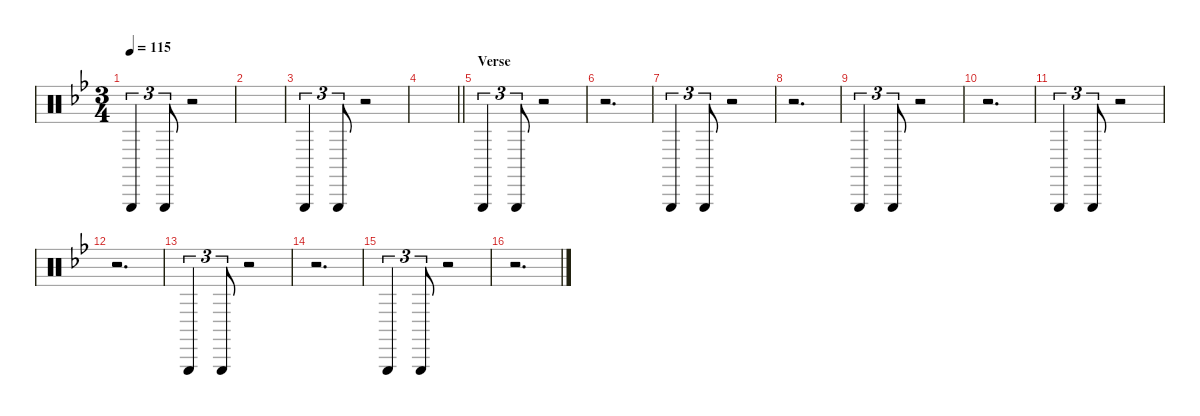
\defaultSystemsLayout 4
\hideDynamics
\bracketExtendMode nobrackets
\singleTrackTrackNamePolicy hidden
\multiTrackTrackNamePolicy hidden
\firstSystemTrackNameMode fullname
\firstSystemTrackNameOrientation horizontal
\otherSystemsTrackNameOrientation horizontal
\track ("Percussion" "drm.") {defaultSystemsLayout 16 instrument percussion}
\staff {score}
\articulation defaults
\ts (3 4)
\tempo 115
\clef neutral
\ks gminor "Triangle (hit)"{acc forcenatural}.4{tu (3 2) dy mf beam Up} "Triangle (hit)"{acc forcenatural}.8{tu (3 2) dy p beam Up}
r.2{beam Up} |
|
"Triangle (hit)"{acc forcenatural}.4{tu (3 2) dy mf beam Up} "Triangle (hit)"{acc forcenatural}.8{tu (3 2) dy p beam Up} r.2{beam Up} |
\barLineRight lightlight
|
\section ("" "Verse")
"Triangle (hit)"{acc forcenatural}.4{tu (3 2) dy mf beam Up} "Triangle (hit)"{acc forcenatural}.8{tu (3 2) dy p beam Up} r.2{beam Up} |
r.2{d beam Down} |
"Triangle (hit)"{acc forcenatural}.4{tu (3 2) dy mf beam Up} "Triangle (hit)"{acc forcenatural}.8{tu (3 2) dy p beam Up} r.2{beam Up} |
r.2{d beam Down} |
"Triangle (hit)"{acc forcenatural}.4{tu (3 2) dy mf beam Up} "Triangle (hit)"{acc forcenatural}.8{tu (3 2) dy p beam Up} r.2{beam Up} |
r.2{d beam Down} |
"Triangle (hit)"{acc forcenatural}.4{tu (3 2) dy mf beam Up} "Triangle (hit)"{acc forcenatural}.8{tu (3 2) dy p beam Up} r.2{beam Up} |
r.2{d beam Down} |
"Triangle (hit)"{acc forcenatural}.4{tu (3 2) dy mf beam Up} "Triangle (hit)"{acc forcenatural}.8{tu (3 2) dy p beam Up} r.2{beam Up} |
r.2{d beam Down} |
"Triangle (hit)"{acc forcenatural}.4{tu (3 2) dy mf beam Up} "Triangle (hit)"{acc forcenatural}.8{tu (3 2) dy p beam Up} r.2{beam Up} |
r.2{d beam Down}
